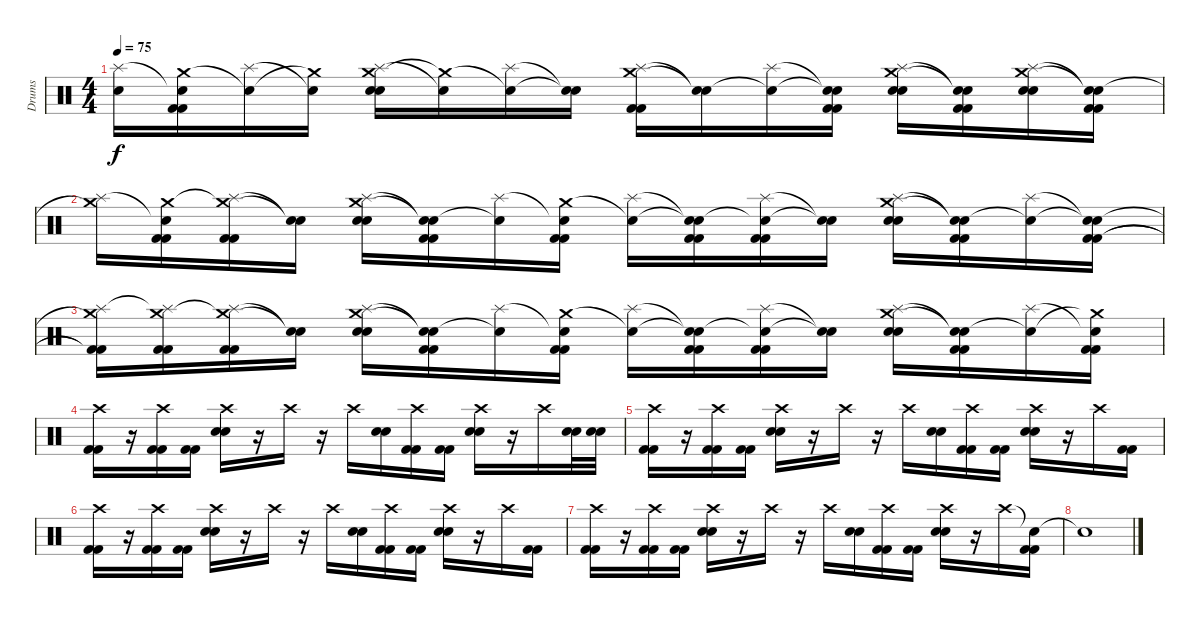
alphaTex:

\track ("Drums" "Drums") {instrument percussion}
\staff {score}
\articulation defaults
\ts (4 4)
\tempo 75
\clef neutral
\ks c
("Snare (hit)"{t} "Splash (hit)").16{dy f} ("Crash medium (hit)" "Snare (hit)"{t} "Kick (hit) 2" "Kick (hit) 2").16 ("Snare (hit)"{t} "Splash (hit)").16 ("Crash medium (hit)"{t} "Snare (hit)"{t}).16 ("Crash medium (hit)" "Splash (hit)" "Electric Snare (hit)" "Electric Snare (hit)").16 ("Crash medium (hit)"{t} "Snare (hit)"{t}).16 ("Snare (hit)"{t} "Splash (hit)").16 ("Snare (hit)"{t} "Snare (hit)"{t}).16 ("Crash medium (hit)" "Splash (hit)" "Kick (hit) 2" "Kick (hit) 2").16 ("Snare (hit)"{t} "Snare (hit)"{t}).16 ("Snare (hit)"{t} "Splash (hit)").16 ("Snare (hit)"{t} "Snare (hit)"{t} "Kick (hit) 2" "Kick (hit) 2").16 ("Crash medium (hit)" "Splash (hit)" "Electric Snare (hit)" "Electric Snare (hit)").16 ("Snare (hit)"{t} "Snare (hit)"{t} "Kick (hit) 2" "Kick (hit) 2").16 ("Crash medium (hit)" "Splash (hit)" "Electric Snare (hit)" "Electric Snare (hit)").16 ("Snare (hit)"{t} "Snare (hit)"{t} "Kick (hit) 2" "Kick (hit) 2").16 |
("Crash medium (hit)"{t} "Splash (hit)").16 ("Crash medium (hit)" "Snare (hit)"{t} "Kick (hit) 2" "Kick (hit) 2").16 ("Crash medium (hit)"{t} "Splash (hit)" "Kick (hit) 2" "Kick (hit) 2").16 ("Snare (hit)"{t} "Snare (hit)"{t}).16 ("Crash medium (hit)" "Splash (hit)" "Electric Snare (hit)" "Electric Snare (hit)").16 ("Snare (hit)"{t} "Snare (hit)"{t} "Kick (hit) 2" "Kick (hit) 2").16 ("Snare (hit)"{t} "Splash (hit)").16 ("Crash medium (hit)" "Snare (hit)"{t} "Kick (hit) 2" "Kick (hit) 2").16 ("Snare (hit)"{t} "Splash (hit)").16 ("Snare (hit)"{t} "Snare (hit)"{t} "Kick (hit) 2" "Kick (hit) 2").16 ("Snare (hit)"{t} "Splash (hit)" "Kick (hit) 2" "Kick (hit) 2").16 ("Snare (hit)"{t} "Snare (hit)"{t}).16 ("Crash medium (hit)" "Splash (hit)" "Electric Snare (hit)" "Electric Snare (hit)").16 ("Snare (hit)"{t} "Snare (hit)"{t} "Kick (hit) 2" "Kick (hit) 2").16 ("Snare (hit)"{t} "Splash (hit)").16 ("Snare (hit)"{t} "Snare (hit)"{t} "Kick (hit) 2" "Kick (hit) 2").16 |
("Crash medium (hit)"{t} "Splash (hit)" "Kick (hit) 2"{t} "Kick (hit) 2"{t}).16 ("Crash medium (hit)" "Splash (hit)"{t} "Kick (hit) 2" "Kick (hit) 2").16 ("Crash medium (hit)"{t} "Splash (hit)" "Kick (hit) 2" "Kick (hit) 2").16 ("Snare (hit)"{t} "Snare (hit)"{t}).16 ("Crash medium (hit)" "Splash (hit)" "Electric Snare (hit)" "Electric Snare (hit)").16 ("Snare (hit)"{t} "Snare (hit)"{t} "Kick (hit) 2" "Kick (hit) 2").16 ("Snare (hit)"{t} "Splash (hit)").16 ("Crash medium (hit)" "Snare (hit)"{t} "Kick (hit) 2" "Kick (hit) 2").16 ("Snare (hit)"{t} "Splash (hit)").16 ("Snare (hit)"{t} "Snare (hit)"{t} "Kick (hit) 2" "Kick (hit) 2").16 ("Snare (hit)"{t} "Splash (hit)" "Kick (hit) 2" "Kick (hit) 2").16 ("Snare (hit)"{t} "Snare (hit)"{t}).16 ("Crash medium (hit)" "Splash (hit)" "Electric Snare (hit)" "Electric Snare (hit)").16 ("Snare (hit)"{t} "Snare (hit)"{t} "Kick (hit) 2" "Kick (hit) 2").16 ("Snare (hit)"{t} "Splash (hit)").16 ("Crash medium (hit)"{t} "Snare (hit)"{t} "Kick (hit) 2" "Kick (hit) 2").16 |
("Crash high (hit)" "Kick (hit) 2" "Kick (hit) 2").16 r.16 ("Crash high (hit)" "Kick (hit) 2" "Kick (hit) 2").16 ("Kick (hit) 2" "Kick (hit) 2").16 ("Crash high (hit)" "Electric Snare (hit)" "Electric Snare (hit)").16 r.16 "Crash high (hit)".16 r.16 "Crash high (hit)".16 ("Electric Snare (hit)" "Electric Snare (hit)").16 ("Crash high (hit)" "Kick (hit) 2" "Kick (hit) 2").16 ("Kick (hit) 2" "Kick (hit) 2").16 ("Crash high (hit)" "Electric Snare (hit)" "Electric Snare (hit)").16 r.16 "Crash high (hit)".16 ("Electric Snare (hit)" "Electric Snare (hit)").32 ("Electric Snare (hit)" "Electric Snare (hit)").32 |
("Crash high (hit)" "Kick (hit) 2" "Kick (hit) 2").16 r.16 ("Crash high (hit)" "Kick (hit) 2" "Kick (hit) 2").16 ("Kick (hit) 2" "Kick (hit) 2").16 ("Crash high (hit)" "Electric Snare (hit)" "Electric Snare (hit)").16 r.16 "Crash high (hit)".16 r.16 "Crash high (hit)".16 ("Electric Snare (hit)" "Electric Snare (hit)").16 ("Crash high (hit)" "Kick (hit) 2" "Kick (hit) 2").16 ("Kick (hit) 2" "Kick (hit) 2").16 ("Crash high (hit)" "Electric Snare (hit)" "Electric Snare (hit)").16 r.16 "Crash high (hit)".16 ("Kick (hit) 2" "Kick (hit) 2").16 |
("Crash high (hit)" "Kick (hit) 2" "Kick (hit) 2").16 r.16 ("Crash high (hit)" "Kick (hit) 2" "Kick (hit) 2").16 ("Kick (hit) 2" "Kick (hit) 2").16 ("Crash high (hit)" "Electric Snare (hit)" "Electric Snare (hit)").16 r.16 "Crash high (hit)".16 r.16 "Crash high (hit)".16 ("Electric Snare (hit)" "Electric Snare (hit)").16 ("Crash high (hit)" "Kick (hit) 2" "Kick (hit) 2").16 ("Kick (hit) 2" "Kick (hit) 2").16 ("Crash high (hit)" "Electric Snare (hit)" "Electric Snare (hit)").16 r.16 "Crash high (hit)".16 ("Kick (hit) 2" "Kick (hit) 2").16 |
("Crash high (hit)" "Kick (hit) 2" "Kick (hit) 2").16 r.16 ("Crash high (hit)" "Kick (hit) 2" "Kick (hit) 2").16 ("Kick (hit) 2" "Kick (hit) 2").16 ("Crash high (hit)" "Electric Snare (hit)" "Electric Snare (hit)").16 r.16 "Crash high (hit)".16 r.16 "Crash high (hit)".16 ("Electric Snare (hit)" "Electric Snare (hit)").16 ("Crash high (hit)" "Kick (hit) 2" "Kick (hit) 2").16 ("Kick (hit) 2" "Kick (hit) 2").16 ("Crash high (hit)" "Electric Snare (hit)" "Electric Snare (hit)").16 r.16 "Crash high (hit)".16 ("Snare (hit)"{t} "Kick (hit) 2" "Kick (hit) 2").16 |
"Snare (hit)"{t}.1
